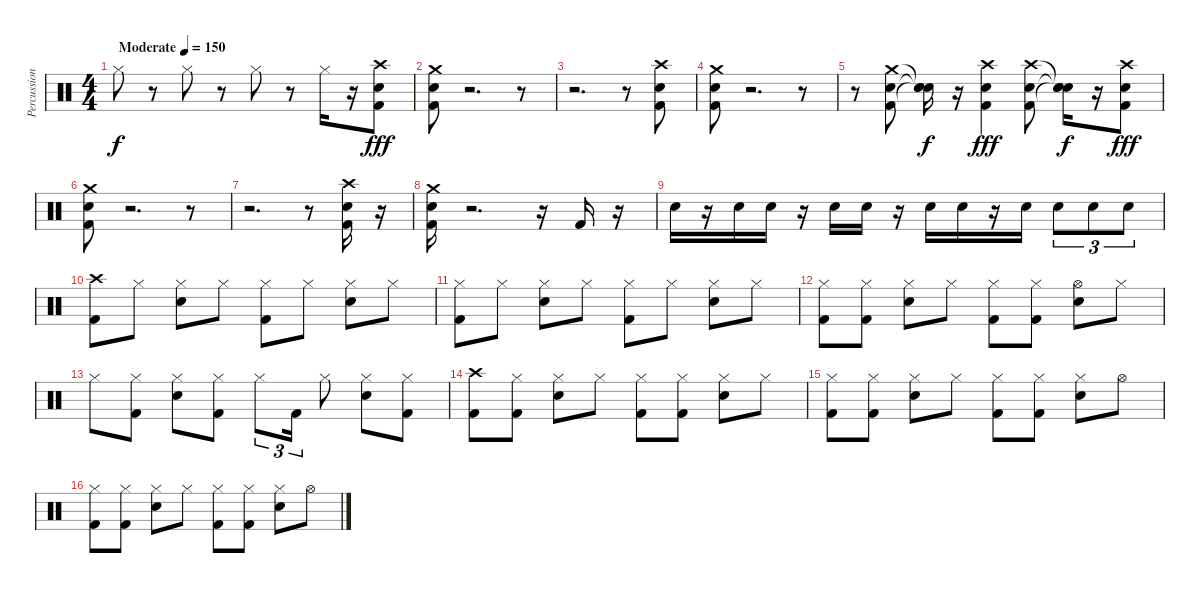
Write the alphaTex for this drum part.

\track ("Percussion" "Percussion") {instrument percussion}
\staff {score}
\articulation defaults
\ts (4 4)
\tempo (150 "Moderate")
\clef neutral
\ks c "Hi-Hat (closed)".8{dy f}
r.8 "Hi-Hat (closed)".8 r.8 "Hi-Hat (closed)".8 r.8 "Hi-Hat (closed)".16 r.16 ("Crash high (hit)" "Snare (hit) 2" "Kick (hit) 2").8{dy fff} |
("Kick (hit) 2" "Snare (hit) 2" "Crash medium (hit)").8 r.2{d} r.8 |
r.2{d} r.8 ("Kick (hit) 2" "Snare (hit) 2" "Crash high (hit)").8 |
("Kick (hit) 2" "Snare (hit) 2" "Crash medium (hit)").8 r.2{d} r.8 |
r.8 ("Kick (hit) 2" "Snare (hit) 2" "Crash medium (hit)").8 ("Snare (hit)"{t} "Snare (hit)"{t} "Snare (hit)"{t}).16{dy f} r.16 ("Kick (hit) 2" "Snare (hit) 2" "Crash high (hit)").4{dy fff} ("Kick (hit) 2" "Snare (hit) 2" "Crash high (hit)").8 ("Snare (hit)"{t} "Snare (hit)"{t} "Snare (hit)"{t}).16{dy f} r.16 ("Kick (hit) 2" "Snare (hit) 2" "Crash high (hit)").8{dy fff} |
("Kick (hit) 2" "Snare (hit) 2" "Crash medium (hit)").8 r.2{d} r.8 |
r.2{d} r.8 ("Kick (hit) 2" "Snare (hit) 2" "Crash high (hit)").16 r.16 |
("Kick (hit) 2" "Snare (hit) 2" "Crash medium (hit)").16 r.2{d} r.16 "Kick (hit) 2".16 r.16 |
"Snare (hit) 2".16 r.16 "Snare (hit) 2".16 "Snare (hit) 2".16 r.16 "Snare (hit) 2".16 "Snare (hit) 2".16 r.16 "Snare (hit) 2".16 "Snare (hit) 2".16 r.16 "Snare (hit) 2".16 "Snare (hit) 2".8{tu (3 2)} "Snare (hit) 2".8{tu (3 2)} "Snare (hit) 2".8{tu (3 2)} |
("Kick (hit) 2" "Crash high (hit)").8 "Hi-Hat (closed)".8 ("Snare (hit) 2" "Hi-Hat (closed)").8 "Hi-Hat (closed)".8 ("Kick (hit) 2" "Hi-Hat (closed)").8 "Hi-Hat (closed)".8 ("Snare (hit) 2" "Hi-Hat (closed)").8 "Hi-Hat (closed)".8 |
("Kick (hit) 2" "Hi-Hat (closed)").8 "Hi-Hat (closed)".8 ("Snare (hit) 2" "Hi-Hat (closed)").8 "Hi-Hat (closed)".8 ("Kick (hit) 2" "Hi-Hat (closed)").8 "Hi-Hat (closed)".8 ("Snare (hit) 2" "Hi-Hat (closed)").8 "Hi-Hat (closed)".8 |
("Kick (hit) 2" "Hi-Hat (closed)").8 ("Kick (hit) 2" "Hi-Hat (closed)").8 ("Snare (hit) 2" "Hi-Hat (closed)").8 "Hi-Hat (closed)".8 ("Kick (hit) 2" "Hi-Hat (closed)").8 ("Kick (hit) 2" "Hi-Hat (closed)").8 ("Snare (hit) 2" "Hi-Hat (open)").8 "Hi-Hat (closed)".8 |
"Hi-Hat (closed)".8 ("Kick (hit) 2" "Hi-Hat (closed)").8 ("Snare (hit) 2" "Hi-Hat (closed)").8 ("Hi-Hat (closed)" "Kick (hit) 2").8 "Hi-Hat (closed)".8{tu (3 2)} "Kick (hit) 2".16{tu (3 2)} "Hi-Hat (closed)".8 ("Snare (hit) 2" "Hi-Hat (closed)").8 ("Hi-Hat (closed)" "Kick (hit) 2").8 |
("Kick (hit) 2" "Crash high (hit)").8 ("Kick (hit) 2" "Hi-Hat (closed)").8 ("Snare (hit) 2" "Hi-Hat (closed)").8 "Hi-Hat (closed)".8 ("Kick (hit) 2" "Hi-Hat (closed)").8 ("Kick (hit) 2" "Hi-Hat (closed)").8 ("Snare (hit) 2" "Hi-Hat (closed)").8 "Hi-Hat (closed)".8 |
("Kick (hit) 2" "Hi-Hat (closed)").8 ("Kick (hit) 2" "Hi-Hat (closed)").8 ("Snare (hit) 2" "Hi-Hat (closed)").8 "Hi-Hat (closed)".8 ("Kick (hit) 2" "Hi-Hat (closed)").8 ("Kick (hit) 2" "Hi-Hat (closed)").8 ("Snare (hit) 2" "Hi-Hat (closed)").8 "Hi-Hat (open)".8 |
("Hi-Hat (closed)" "Kick (hit) 2").8 ("Kick (hit) 2" "Hi-Hat (closed)").8 ("Snare (hit) 2" "Hi-Hat (closed)").8 "Hi-Hat (closed)".8 ("Kick (hit) 2" "Hi-Hat (closed)").8 ("Kick (hit) 2" "Hi-Hat (closed)").8 ("Snare (hit) 2" "Hi-Hat (closed)").8 "Hi-Hat (open)".8
